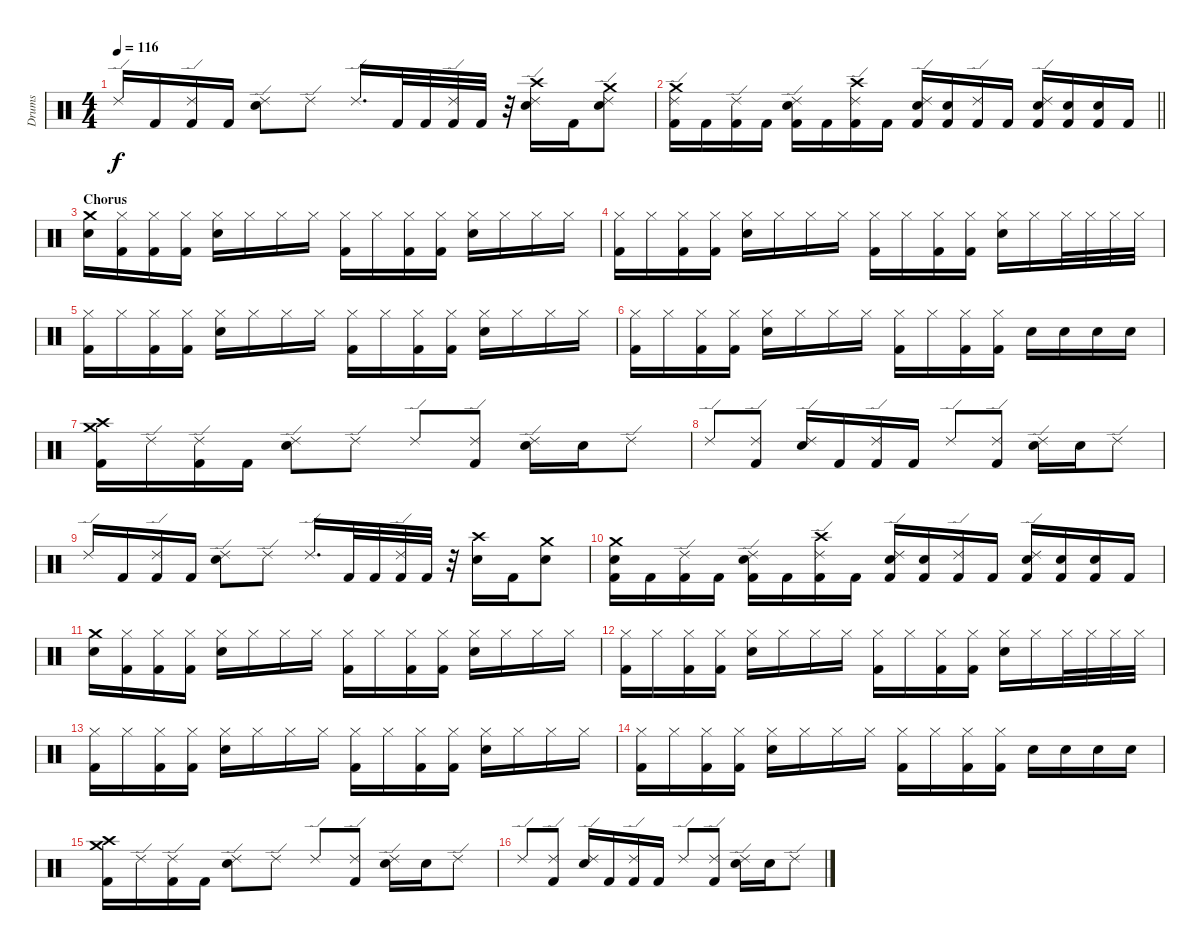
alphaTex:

\track ("Drums" "Drums") {instrument percussion}
\staff {score}
\articulation defaults
\ts (4 4)
\tempo 116
\clef neutral
\ks c "Ride (edge) 2".16{dy f} "Kick (hit) 2".16
("Ride (edge) 2" "Kick (hit) 2").16 "Kick (hit) 2".16 ("Ride (edge) 2" "Snare (hit) 2").8 "Ride (edge) 2".8 "Ride (edge) 2".16{d} "Kick (hit) 2".32 "Kick (hit) 2".32 ("Ride (edge) 2" "Kick (hit) 2").32 "Kick (hit) 2".32 r.32 ("Ride (edge) 2" "Snare (hit) 2" "Crash high (hit)").16 "Kick (hit) 2".16 ("Ride (edge) 2" "Snare (hit) 2" "Crash medium (hit)").8 |
\barLineRight lightlight
("Ride (edge) 2" "Kick (hit) 2" "Crash medium (hit)").16 "Kick (hit) 2".16 ("Ride (edge) 2" "Kick (hit) 2").16 "Kick (hit) 2".16 ("Ride (edge) 2" "Kick (hit) 2" "Snare (hit) 2").16 "Kick (hit) 2".16 ("Ride (edge) 2" "Kick (hit) 2" "Crash high (hit)").16 "Kick (hit) 2".16 ("Ride (edge) 2" "Kick (hit) 2" "Snare (hit) 2").16 ("Kick (hit) 2" "Snare (hit) 2").16 ("Ride (edge) 2" "Kick (hit) 2").16 "Kick (hit) 2".16 ("Ride (edge) 2" "Kick (hit) 2" "Snare (hit) 2").16 ("Kick (hit) 2" "Snare (hit) 2").16 ("Kick (hit) 2" "Snare (hit) 2").16 "Kick (hit) 2".16 |
\section ("" "Chorus")
("Snare (hit) 2" "Crash medium (hit)").16 ("Hi-Hat (closed)" "Kick (hit) 2").16 ("Hi-Hat (closed)" "Kick (hit) 2").16 ("Hi-Hat (closed)" "Kick (hit) 2").16 ("Hi-Hat (closed)" "Snare (hit) 2").16 "Hi-Hat (closed)".16 "Hi-Hat (closed)".16 "Hi-Hat (closed)".16 ("Hi-Hat (closed)" "Kick (hit) 2").16 "Hi-Hat (closed)".16 ("Hi-Hat (closed)" "Kick (hit) 2").16 ("Hi-Hat (closed)" "Kick (hit) 2").16 ("Hi-Hat (closed)" "Snare (hit) 2").16 "Hi-Hat (closed)".16 "Hi-Hat (closed)".16 "Hi-Hat (closed)".16 |
("Hi-Hat (closed)" "Kick (hit) 2").16 "Hi-Hat (closed)".16 ("Hi-Hat (closed)" "Kick (hit) 2").16 ("Hi-Hat (closed)" "Kick (hit) 2").16 ("Hi-Hat (closed)" "Snare (hit) 2").16 "Hi-Hat (closed)".16 "Hi-Hat (closed)".16 "Hi-Hat (closed)".16 ("Hi-Hat (closed)" "Kick (hit) 2").16 "Hi-Hat (closed)".16 ("Hi-Hat (closed)" "Kick (hit) 2").16 ("Hi-Hat (closed)" "Kick (hit) 2").16 ("Hi-Hat (closed)" "Snare (hit) 2").16 "Hi-Hat (closed)".16 "Hi-Hat (closed)".32 "Hi-Hat (closed)".32 "Hi-Hat (closed)".32 "Hi-Hat (closed)".32 |
("Hi-Hat (closed)" "Kick (hit) 2").16 "Hi-Hat (closed)".16 ("Hi-Hat (closed)" "Kick (hit) 2").16 ("Hi-Hat (closed)" "Kick (hit) 2").16 ("Hi-Hat (closed)" "Snare (hit) 2").16 "Hi-Hat (closed)".16 "Hi-Hat (closed)".16 "Hi-Hat (closed)".16 ("Hi-Hat (closed)" "Kick (hit) 2").16 "Hi-Hat (closed)".16 ("Hi-Hat (closed)" "Kick (hit) 2").16 ("Hi-Hat (closed)" "Kick (hit) 2").16 ("Hi-Hat (closed)" "Snare (hit) 2").16 "Hi-Hat (closed)".16 "Hi-Hat (closed)".16 "Hi-Hat (closed)".16 |
("Hi-Hat (closed)" "Kick (hit) 2").16 "Hi-Hat (closed)".16 ("Hi-Hat (closed)" "Kick (hit) 2").16 ("Hi-Hat (closed)" "Kick (hit) 2").16 ("Hi-Hat (closed)" "Snare (hit) 2").16 "Hi-Hat (closed)".16 "Hi-Hat (closed)".16 "Hi-Hat (closed)".16 ("Hi-Hat (closed)" "Kick (hit) 2").16 "Hi-Hat (closed)".16 ("Hi-Hat (closed)" "Kick (hit) 2").16 ("Hi-Hat (closed)" "Kick (hit) 2").16 "Snare (hit) 2".16 "Snare (hit) 2".16 "Snare (hit) 2".16 "Snare (hit) 2".16 |
("Kick (hit) 2" "Crash medium (hit)" "Crash high (hit)").16 "Ride (edge) 2".16 ("Ride (edge) 2" "Kick (hit) 2").16 "Kick (hit) 2".16 ("Ride (edge) 2" "Snare (hit) 2").8 "Ride (edge) 2".8 "Ride (edge) 2".8 ("Ride (edge) 2" "Kick (hit) 2").8 ("Ride (edge) 2" "Snare (hit) 2").16 "Snare (hit) 2".16 "Ride (edge) 2".8 |
"Ride (edge) 2".8 ("Ride (edge) 2" "Kick (hit) 2").8 ("Ride (edge) 2" "Snare (hit) 2").16 "Kick (hit) 2".16 ("Ride (edge) 2" "Kick (hit) 2").16 "Kick (hit) 2".16 "Ride (edge) 2".8 ("Ride (edge) 2" "Kick (hit) 2").8 ("Ride (edge) 2" "Snare (hit) 2").16 "Snare (hit) 2".16 "Ride (edge) 2".8 |
"Ride (edge) 2".16 "Kick (hit) 2".16 ("Ride (edge) 2" "Kick (hit) 2").16 "Kick (hit) 2".16 ("Ride (edge) 2" "Snare (hit) 2").8 "Ride (edge) 2".8 "Ride (edge) 2".16{d} "Kick (hit) 2".32 "Kick (hit) 2".32 ("Ride (edge) 2" "Kick (hit) 2").32 "Kick (hit) 2".32 r.32 ("Snare (hit) 2" "Crash high (hit)").16 "Kick (hit) 2".16 ("Snare (hit) 2" "Crash medium (hit)").8 |
("Kick (hit) 2" "Snare (hit) 2" "Crash medium (hit)").16 "Kick (hit) 2".16 ("Ride (edge) 2" "Kick (hit) 2").16 "Kick (hit) 2".16 ("Ride (edge) 2" "Kick (hit) 2" "Snare (hit) 2").16 "Kick (hit) 2".16 ("Ride (edge) 2" "Kick (hit) 2" "Crash high (hit)").16 "Kick (hit) 2".16 ("Ride (edge) 2" "Kick (hit) 2" "Snare (hit) 2").16 ("Kick (hit) 2" "Snare (hit) 2").16 ("Ride (edge) 2" "Kick (hit) 2").16 "Kick (hit) 2".16 ("Ride (edge) 2" "Kick (hit) 2" "Snare (hit) 2").16 ("Kick (hit) 2" "Snare (hit) 2").16 ("Kick (hit) 2" "Snare (hit) 2").16 "Kick (hit) 2".16 |
("Snare (hit) 2" "Crash medium (hit)").16 ("Hi-Hat (closed)" "Kick (hit) 2").16 ("Hi-Hat (closed)" "Kick (hit) 2").16 ("Hi-Hat (closed)" "Kick (hit) 2").16 ("Hi-Hat (closed)" "Snare (hit) 2").16 "Hi-Hat (closed)".16 "Hi-Hat (closed)".16 "Hi-Hat (closed)".16 ("Hi-Hat (closed)" "Kick (hit) 2").16 "Hi-Hat (closed)".16 ("Hi-Hat (closed)" "Kick (hit) 2").16 ("Hi-Hat (closed)" "Kick (hit) 2").16 ("Hi-Hat (closed)" "Snare (hit) 2").16 "Hi-Hat (closed)".16 "Hi-Hat (closed)".16 "Hi-Hat (closed)".16 |
("Hi-Hat (closed)" "Kick (hit) 2").16 "Hi-Hat (closed)".16 ("Hi-Hat (closed)" "Kick (hit) 2").16 ("Hi-Hat (closed)" "Kick (hit) 2").16 ("Hi-Hat (closed)" "Snare (hit) 2").16 "Hi-Hat (closed)".16 "Hi-Hat (closed)".16 "Hi-Hat (closed)".16 ("Hi-Hat (closed)" "Kick (hit) 2").16 "Hi-Hat (closed)".16 ("Hi-Hat (closed)" "Kick (hit) 2").16 ("Hi-Hat (closed)" "Kick (hit) 2").16 ("Hi-Hat (closed)" "Snare (hit) 2").16 "Hi-Hat (closed)".16 "Hi-Hat (closed)".32 "Hi-Hat (closed)".32 "Hi-Hat (closed)".32 "Hi-Hat (closed)".32 |
("Hi-Hat (closed)" "Kick (hit) 2").16 "Hi-Hat (closed)".16 ("Hi-Hat (closed)" "Kick (hit) 2").16 ("Hi-Hat (closed)" "Kick (hit) 2").16 ("Hi-Hat (closed)" "Snare (hit) 2").16 "Hi-Hat (closed)".16 "Hi-Hat (closed)".16 "Hi-Hat (closed)".16 ("Hi-Hat (closed)" "Kick (hit) 2").16 "Hi-Hat (closed)".16 ("Hi-Hat (closed)" "Kick (hit) 2").16 ("Hi-Hat (closed)" "Kick (hit) 2").16 ("Hi-Hat (closed)" "Snare (hit) 2").16 "Hi-Hat (closed)".16 "Hi-Hat (closed)".16 "Hi-Hat (closed)".16 |
("Hi-Hat (closed)" "Kick (hit) 2").16 "Hi-Hat (closed)".16 ("Hi-Hat (closed)" "Kick (hit) 2").16 ("Hi-Hat (closed)" "Kick (hit) 2").16 ("Hi-Hat (closed)" "Snare (hit) 2").16 "Hi-Hat (closed)".16 "Hi-Hat (closed)".16 "Hi-Hat (closed)".16 ("Hi-Hat (closed)" "Kick (hit) 2").16 "Hi-Hat (closed)".16 ("Hi-Hat (closed)" "Kick (hit) 2").16 ("Hi-Hat (closed)" "Kick (hit) 2").16 "Snare (hit) 2".16 "Snare (hit) 2".16 "Snare (hit) 2".16 "Snare (hit) 2".16 |
("Kick (hit) 2" "Crash medium (hit)" "Crash high (hit)").16 "Ride (edge) 2".16 ("Ride (edge) 2" "Kick (hit) 2").16 "Kick (hit) 2".16 ("Ride (edge) 2" "Snare (hit) 2").8 "Ride (edge) 2".8 "Ride (edge) 2".8 ("Ride (edge) 2" "Kick (hit) 2").8 ("Ride (edge) 2" "Snare (hit) 2").16 "Snare (hit) 2".16 "Ride (edge) 2".8 |
"Ride (edge) 2".8 ("Ride (edge) 2" "Kick (hit) 2").8 ("Ride (edge) 2" "Snare (hit) 2").16 "Kick (hit) 2".16 ("Ride (edge) 2" "Kick (hit) 2").16 "Kick (hit) 2".16 "Ride (edge) 2".8 ("Ride (edge) 2" "Kick (hit) 2").8 ("Ride (edge) 2" "Snare (hit) 2").16 "Snare (hit) 2".16 "Ride (edge) 2".8
